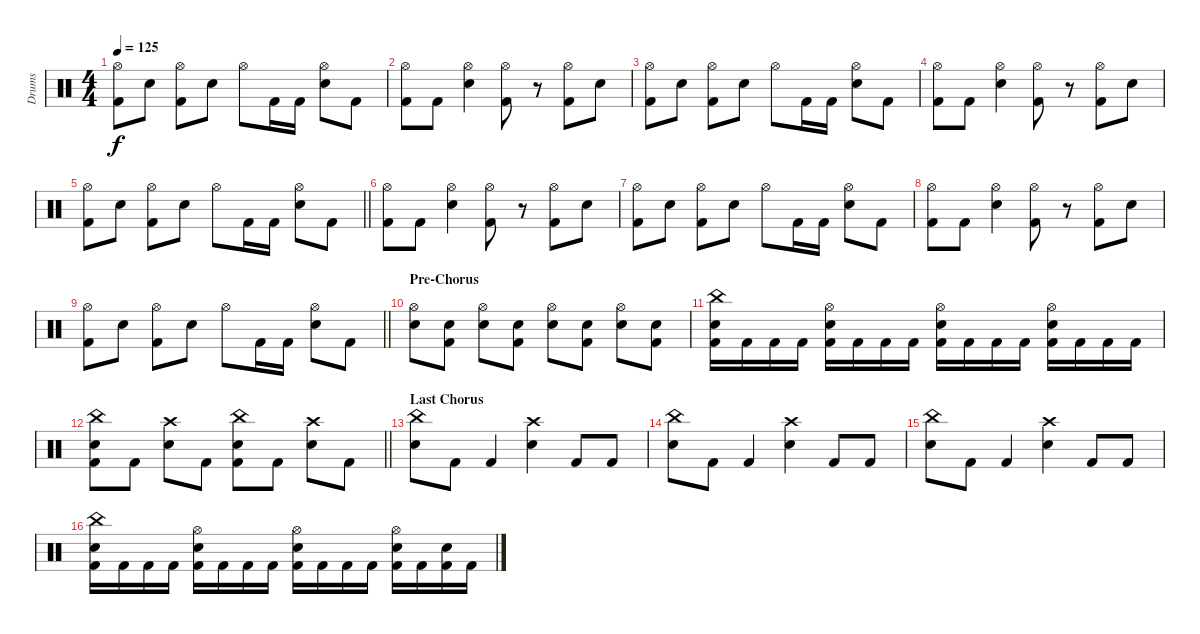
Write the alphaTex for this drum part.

\track ("Drums" "Drums") {instrument percussion}
\staff {score}
\articulation defaults
\ts (4 4)
\tempo 125
\clef neutral
\ks c
("Hi-Hat (open)" "Kick (hit) 2").8{dy f} "Electric Snare (hit)".8 ("Hi-Hat (open)" "Kick (hit) 2").8 "Electric Snare (hit)".8 "Hi-Hat (open)".8 "Kick (hit) 2".16 "Kick (hit) 2".16 ("Hi-Hat (open)" "Electric Snare (hit)").8 "Kick (hit) 2".8 |
("Hi-Hat (open)" "Kick (hit) 2").8 "Kick (hit) 2".8 ("Hi-Hat (open)" "Electric Snare (hit)").4 ("Hi-Hat (open)" "Kick (hit) 2").8 r.8 ("Hi-Hat (open)" "Kick (hit) 2").8 "Electric Snare (hit)".8 |
("Hi-Hat (open)" "Kick (hit) 2").8 "Electric Snare (hit)".8 ("Hi-Hat (open)" "Kick (hit) 2").8 "Electric Snare (hit)".8 "Hi-Hat (open)".8 "Kick (hit) 2".16 "Kick (hit) 2".16 ("Hi-Hat (open)" "Electric Snare (hit)").8 "Kick (hit) 2".8 |
("Hi-Hat (open)" "Kick (hit) 2").8 "Kick (hit) 2".8 ("Hi-Hat (open)" "Electric Snare (hit)").4 ("Hi-Hat (open)" "Kick (hit) 2").8 r.8 ("Hi-Hat (open)" "Kick (hit) 2").8 "Electric Snare (hit)".8 |
\barLineRight lightlight
("Hi-Hat (open)" "Kick (hit) 2").8 "Electric Snare (hit)".8 ("Hi-Hat (open)" "Kick (hit) 2").8 "Electric Snare (hit)".8 "Hi-Hat (open)".8 "Kick (hit) 2".16 "Kick (hit) 2".16 ("Hi-Hat (open)" "Electric Snare (hit)").8 "Kick (hit) 2".8 |
("Hi-Hat (open)" "Kick (hit) 2").8 "Kick (hit) 2".8 ("Hi-Hat (open)" "Electric Snare (hit)").4 ("Hi-Hat (open)" "Kick (hit) 2").8 r.8 ("Hi-Hat (open)" "Kick (hit) 2").8 "Electric Snare (hit)".8 |
("Hi-Hat (open)" "Kick (hit) 2").8 "Electric Snare (hit)".8 ("Hi-Hat (open)" "Kick (hit) 2").8 "Electric Snare (hit)".8 "Hi-Hat (open)".8 "Kick (hit) 2".16 "Kick (hit) 2".16 ("Hi-Hat (open)" "Electric Snare (hit)").8 "Kick (hit) 2".8 |
("Hi-Hat (open)" "Kick (hit) 2").8 "Kick (hit) 2".8 ("Hi-Hat (open)" "Electric Snare (hit)").4 ("Hi-Hat (open)" "Kick (hit) 2").8 r.8 ("Hi-Hat (open)" "Kick (hit) 2").8 "Electric Snare (hit)".8 |
\barLineRight lightlight
("Hi-Hat (open)" "Kick (hit) 2").8 "Electric Snare (hit)".8 ("Hi-Hat (open)" "Kick (hit) 2").8 "Electric Snare (hit)".8 "Hi-Hat (open)".8 "Kick (hit) 2".16 "Kick (hit) 2".16 ("Hi-Hat (open)" "Electric Snare (hit)").8 "Kick (hit) 2".8 |
\section ("" "Pre-Chorus")
("Hi-Hat (open)" "Electric Snare (hit)").8 ("Kick (hit) 2" "Electric Snare (hit)").8 ("Hi-Hat (open)" "Electric Snare (hit)").8 ("Kick (hit) 2" "Electric Snare (hit)").8 ("Hi-Hat (open)" "Electric Snare (hit)").8 ("Kick (hit) 2" "Electric Snare (hit)").8 ("Hi-Hat (open)" "Electric Snare (hit)").8 ("Kick (hit) 2" "Electric Snare (hit)").8 |
("China (hit)" "Kick (hit) 2" "Electric Snare (hit)").16 "Kick (hit) 2".16 "Kick (hit) 2".16 "Kick (hit) 2".16 ("Hi-Hat (open)" "Kick (hit) 2" "Electric Snare (hit)").16 "Kick (hit) 2".16 "Kick (hit) 2".16 "Kick (hit) 2".16 ("Hi-Hat (open)" "Kick (hit) 2" "Electric Snare (hit)").16 "Kick (hit) 2".16 "Kick (hit) 2".16 "Kick (hit) 2".16 ("Hi-Hat (open)" "Kick (hit) 2" "Electric Snare (hit)").16 "Kick (hit) 2".16 "Kick (hit) 2".16 "Kick (hit) 2".16 |
\barLineRight lightlight
("China (hit)" "Kick (hit) 2" "Electric Snare (hit)").8 "Kick (hit) 2".8 ("Crash high (hit)" "Electric Snare (hit)").8 "Kick (hit) 2".8 ("China (hit)" "Kick (hit) 2" "Electric Snare (hit)").8 "Kick (hit) 2".8 ("Crash high (hit)" "Electric Snare (hit)").8 "Kick (hit) 2".8 |
\section ("" "Last Chorus")
("China (hit)" "Electric Snare (hit)").8 "Kick (hit) 2".8 "Kick (hit) 2".4 ("Crash high (hit)" "Electric Snare (hit)").4 "Kick (hit) 2".8 "Kick (hit) 2".8 |
("China (hit)" "Electric Snare (hit)").8 "Kick (hit) 2".8 "Kick (hit) 2".4 ("Crash high (hit)" "Electric Snare (hit)").4 "Kick (hit) 2".8 "Kick (hit) 2".8 |
("China (hit)" "Electric Snare (hit)").8 "Kick (hit) 2".8 "Kick (hit) 2".4 ("Crash high (hit)" "Electric Snare (hit)").4 "Kick (hit) 2".8 "Kick (hit) 2".8 |
("China (hit)" "Kick (hit) 2" "Electric Snare (hit)").16 "Kick (hit) 2".16 "Kick (hit) 2".16 "Kick (hit) 2".16 ("Hi-Hat (open)" "Kick (hit) 2" "Electric Snare (hit)").16 "Kick (hit) 2".16 "Kick (hit) 2".16 "Kick (hit) 2".16 ("Hi-Hat (open)" "Kick (hit) 2" "Electric Snare (hit)").16 "Kick (hit) 2".16 "Kick (hit) 2".16 "Kick (hit) 2".16 ("Hi-Hat (open)" "Kick (hit) 2" "Electric Snare (hit)").16 "Kick (hit) 2".16 ("Kick (hit) 2" "Electric Snare (hit)").16 "Kick (hit) 2".16
